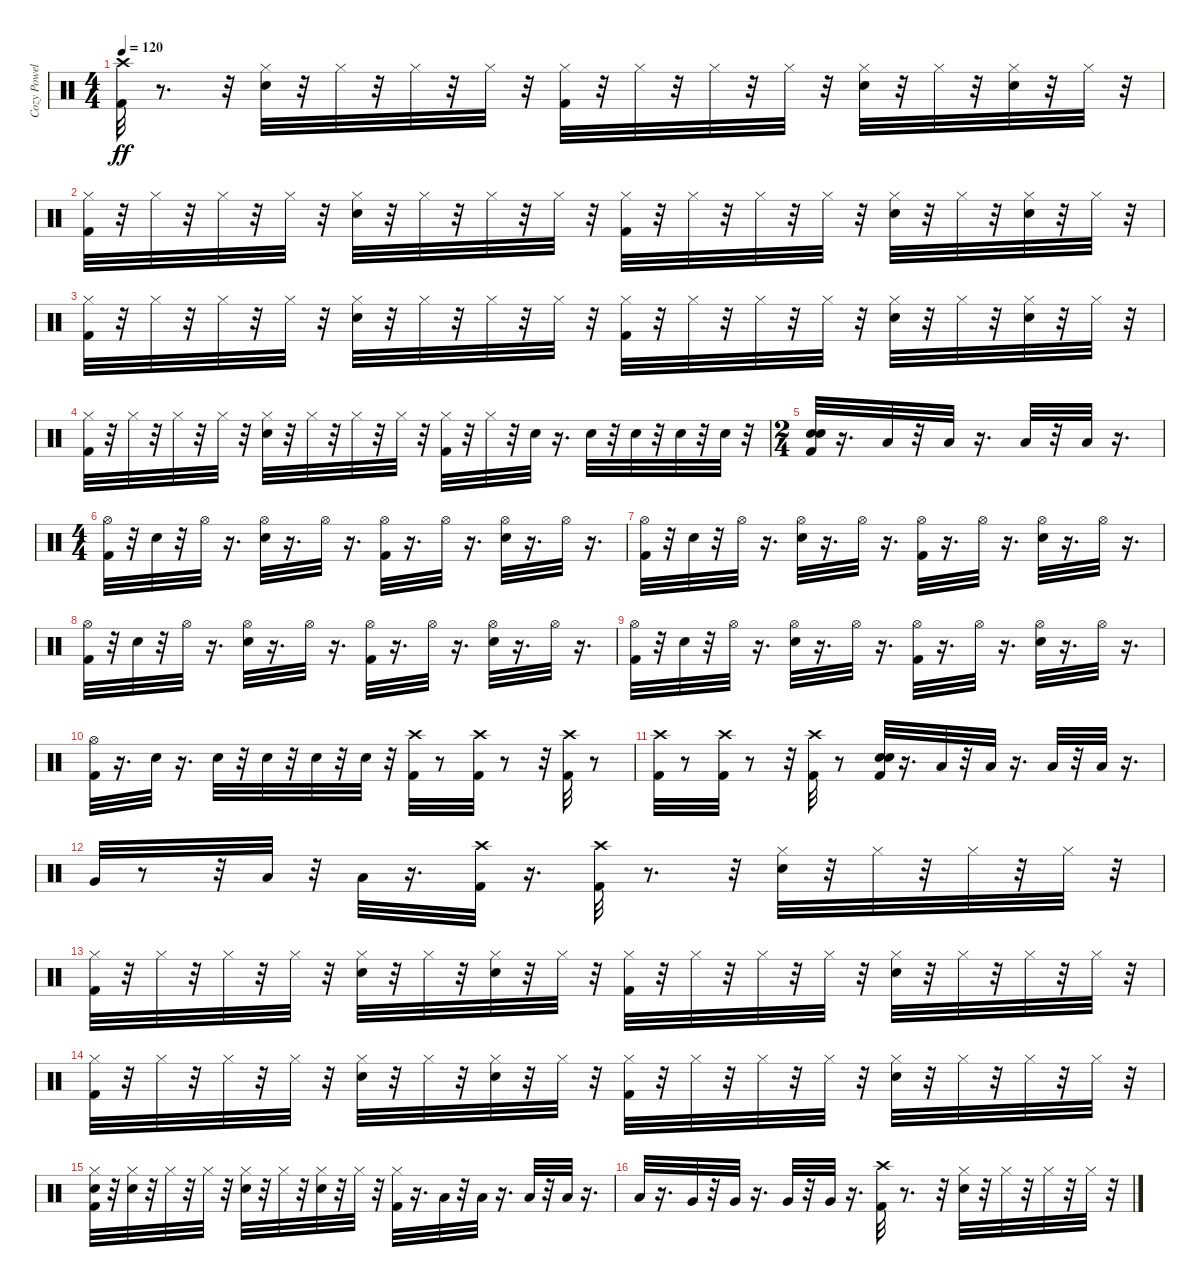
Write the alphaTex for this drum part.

\track ("Cozy Powel" "Cozy Powel") {instrument percussion}
\staff {score}
\articulation defaults
\ts (4 4)
\tempo 120
\clef neutral
\ks c
("Kick (hit) 2" "Crash high (hit)").32{dy ff} r.8{d} r.32 ("Snare (hit) 2" "Hi-Hat (closed)").32 r.32 "Hi-Hat (closed)".32 r.32 "Hi-Hat (closed)".32 r.32 "Hi-Hat (closed)".32 r.32 ("Kick (hit) 2" "Hi-Hat (closed)").32 r.32 "Hi-Hat (closed)".32 r.32 "Hi-Hat (closed)".32 r.32 "Hi-Hat (closed)".32 r.32 ("Snare (hit) 2" "Hi-Hat (closed)").32 r.32 "Hi-Hat (closed)".32 r.32 ("Snare (hit) 2" "Hi-Hat (closed)").32 r.32 "Hi-Hat (closed)".32 r.32 |
("Kick (hit) 2" "Hi-Hat (closed)").32 r.32 "Hi-Hat (closed)".32 r.32 "Hi-Hat (closed)".32 r.32 "Hi-Hat (closed)".32 r.32 ("Snare (hit) 2" "Hi-Hat (closed)").32 r.32 "Hi-Hat (closed)".32 r.32 "Hi-Hat (closed)".32 r.32 "Hi-Hat (closed)".32 r.32 ("Kick (hit) 2" "Hi-Hat (closed)").32 r.32 "Hi-Hat (closed)".32 r.32 "Hi-Hat (closed)".32 r.32 "Hi-Hat (closed)".32 r.32 ("Snare (hit) 2" "Hi-Hat (closed)").32 r.32 "Hi-Hat (closed)".32 r.32 ("Snare (hit) 2" "Hi-Hat (closed)").32 r.32 "Hi-Hat (closed)".32 r.32 |
("Kick (hit) 2" "Hi-Hat (closed)").32 r.32 "Hi-Hat (closed)".32 r.32 "Hi-Hat (closed)".32 r.32 "Hi-Hat (closed)".32 r.32 ("Snare (hit) 2" "Hi-Hat (closed)").32 r.32 "Hi-Hat (closed)".32 r.32 "Hi-Hat (closed)".32 r.32 "Hi-Hat (closed)".32 r.32 ("Kick (hit) 2" "Hi-Hat (closed)").32 r.32 "Hi-Hat (closed)".32 r.32 "Hi-Hat (closed)".32 r.32 "Hi-Hat (closed)".32 r.32 ("Snare (hit) 2" "Hi-Hat (closed)").32 r.32 "Hi-Hat (closed)".32 r.32 ("Snare (hit) 2" "Hi-Hat (closed)").32 r.32 "Hi-Hat (closed)".32 r.32 |
("Kick (hit) 2" "Hi-Hat (closed)").32 r.32 "Hi-Hat (closed)".32 r.32 "Hi-Hat (closed)".32 r.32 "Hi-Hat (closed)".32 r.32 ("Snare (hit) 2" "Hi-Hat (closed)").32 r.32 "Hi-Hat (closed)".32 r.32 "Hi-Hat (closed)".32 r.32 "Hi-Hat (closed)".32 r.32 ("Kick (hit) 2" "Hi-Hat (closed)").32 r.32 "Hi-Hat (closed)".32 r.32 "Snare (hit) 2".32 r.16{d} "Snare (hit) 2".32 r.32 "Snare (hit) 2".32 r.32 "Snare (hit) 2".32 r.32 "Snare (hit) 2".32 r.32 |
\ts (2 4)
("Kick (hit) 2" "Snare (hit) 2" "Snare (hit) 2").32 r.16{d} "Low Tom (hit)".32 r.32 "Low Tom (hit)".32 r.16{d} "Low Tom (hit)".32 r.32 "Low Tom (hit)".32 r.16{d} |
\ts (4 4)
("Kick (hit) 2" "Hi-Hat (open)").32 r.32 "Snare (hit) 2".32 r.32 "Hi-Hat (open)".32 r.16{d} ("Snare (hit) 2" "Hi-Hat (open)").32 r.16{d} "Hi-Hat (open)".32 r.16{d} ("Kick (hit) 2" "Hi-Hat (open)").32 r.16{d} "Hi-Hat (open)".32 r.16{d} ("Snare (hit) 2" "Hi-Hat (open)").32 r.16{d} "Hi-Hat (open)".32 r.16{d} |
("Kick (hit) 2" "Hi-Hat (open)").32 r.32 "Snare (hit) 2".32 r.32 "Hi-Hat (open)".32 r.16{d} ("Snare (hit) 2" "Hi-Hat (open)").32 r.16{d} "Hi-Hat (open)".32 r.16{d} ("Kick (hit) 2" "Hi-Hat (open)").32 r.16{d} "Hi-Hat (open)".32 r.16{d} ("Snare (hit) 2" "Hi-Hat (open)").32 r.16{d} "Hi-Hat (open)".32 r.16{d} |
("Kick (hit) 2" "Hi-Hat (open)").32 r.32 "Snare (hit) 2".32 r.32 "Hi-Hat (open)".32 r.16{d} ("Snare (hit) 2" "Hi-Hat (open)").32 r.16{d} "Hi-Hat (open)".32 r.16{d} ("Kick (hit) 2" "Hi-Hat (open)").32 r.16{d} "Hi-Hat (open)".32 r.16{d} ("Snare (hit) 2" "Hi-Hat (open)").32 r.16{d} "Hi-Hat (open)".32 r.16{d} |
("Kick (hit) 2" "Hi-Hat (open)").32 r.32 "Snare (hit) 2".32 r.32 "Hi-Hat (open)".32 r.16{d} ("Snare (hit) 2" "Hi-Hat (open)").32 r.16{d} "Hi-Hat (open)".32 r.16{d} ("Kick (hit) 2" "Hi-Hat (open)").32 r.16{d} "Hi-Hat (open)".32 r.16{d} ("Snare (hit) 2" "Hi-Hat (open)").32 r.16{d} "Hi-Hat (open)".32 r.16{d} |
("Kick (hit) 2" "Hi-Hat (open)").32 r.16{d} "Snare (hit) 2".32 r.16{d} "Snare (hit) 2".32 r.32 "Snare (hit) 2".32 r.32 "Snare (hit) 2".32 r.32 "Snare (hit) 2".32 r.32 ("Kick (hit) 2" "Crash high (hit)").32 r.8 ("Kick (hit) 2" "Crash high (hit)").32 r.8 r.32 ("Kick (hit) 2" "Crash high (hit)").32 r.8 |
("Kick (hit) 2" "Crash high (hit)").32 r.8 ("Kick (hit) 2" "Crash high (hit)").32 r.8 r.32 ("Kick (hit) 2" "Crash high (hit)").32 r.8 ("Kick (hit) 2" "Snare (hit) 2" "Snare (hit) 2").32 r.16{d} "Low Tom (hit)".32 r.32 "Low Tom (hit)".32 r.16{d} "Low Tom (hit)".32 r.32 "Low Tom (hit)".32 r.16{d} |
"Very Low Tom (hit)".32 r.8 r.32 "Low Tom (hit)".32 r.32 "Low Tom (hit)".32 r.16{d} ("Kick (hit) 2" "Crash high (hit)").32 r.16{d} ("Crash high (hit)" "Kick (hit) 2").32 r.8{d} r.32 ("Snare (hit) 2" "Hi-Hat (closed)").32 r.32 "Hi-Hat (closed)".32 r.32 "Hi-Hat (closed)".32 r.32 "Hi-Hat (closed)".32 r.32 |
("Kick (hit) 2" "Hi-Hat (closed)").32 r.32 "Hi-Hat (closed)".32 r.32 "Hi-Hat (closed)".32 r.32 "Hi-Hat (closed)".32 r.32 ("Snare (hit) 2" "Hi-Hat (closed)").32 r.32 "Hi-Hat (closed)".32 r.32 ("Snare (hit) 2" "Hi-Hat (closed)").32 r.32 "Hi-Hat (closed)".32 r.32 ("Hi-Hat (closed)" "Kick (hit) 2").32 r.32 "Hi-Hat (closed)".32 r.32 "Hi-Hat (closed)".32 r.32 "Hi-Hat (closed)".32 r.32 ("Hi-Hat (closed)" "Snare (hit) 2").32 r.32 "Hi-Hat (closed)".32 r.32 "Hi-Hat (closed)".32 r.32 "Hi-Hat (closed)".32 r.32 |
("Hi-Hat (closed)" "Kick (hit) 2").32 r.32 "Hi-Hat (closed)".32 r.32 "Hi-Hat (closed)".32 r.32 "Hi-Hat (closed)".32 r.32 ("Hi-Hat (closed)" "Snare (hit) 2").32 r.32 "Hi-Hat (closed)".32 r.32 ("Hi-Hat (closed)" "Snare (hit) 2").32 r.32 "Hi-Hat (closed)".32 r.32 ("Hi-Hat (closed)" "Kick (hit) 2").32 r.32 "Hi-Hat (closed)".32 r.32 "Hi-Hat (closed)".32 r.32 "Hi-Hat (closed)".32 r.32 ("Hi-Hat (closed)" "Snare (hit) 2").32 r.32 "Hi-Hat (closed)".32 r.32 "Hi-Hat (closed)".32 r.32 "Hi-Hat (closed)".32 r.32 |
("Hi-Hat (closed)" "Kick (hit) 2" "Snare (hit) 2").32 r.32 ("Hi-Hat (closed)" "Snare (hit) 2").32 r.32 "Hi-Hat (closed)".32 r.32 "Hi-Hat (closed)".32 r.32 ("Hi-Hat (closed)" "Snare (hit) 2").32 r.32 "Hi-Hat (closed)".32 r.32 ("Hi-Hat (closed)" "Snare (hit) 2").32 r.32 "Hi-Hat (closed)".32 r.32 ("Kick (hit) 2" "Hi-Hat (closed)").32 r.16{d} "Low Tom (hit)".32 r.32 "Low Tom (hit)".32 r.16{d} "Low Tom (hit)".32 r.32 "Low Tom (hit)".32 r.16{d} |
"Low Tom (hit)".32 r.16{d} "Very Low Tom (hit)".32 r.32 "Very Low Tom (hit)".32 r.16{d} "Very Low Tom (hit)".32 r.32 "Very Low Tom (hit)".32 r.16{d} ("Crash high (hit)" "Kick (hit) 2").32 r.8{d} r.32 ("Snare (hit) 2" "Hi-Hat (closed)").32 r.32 "Hi-Hat (closed)".32 r.32 "Hi-Hat (closed)".32 r.32 "Hi-Hat (closed)".32 r.32
